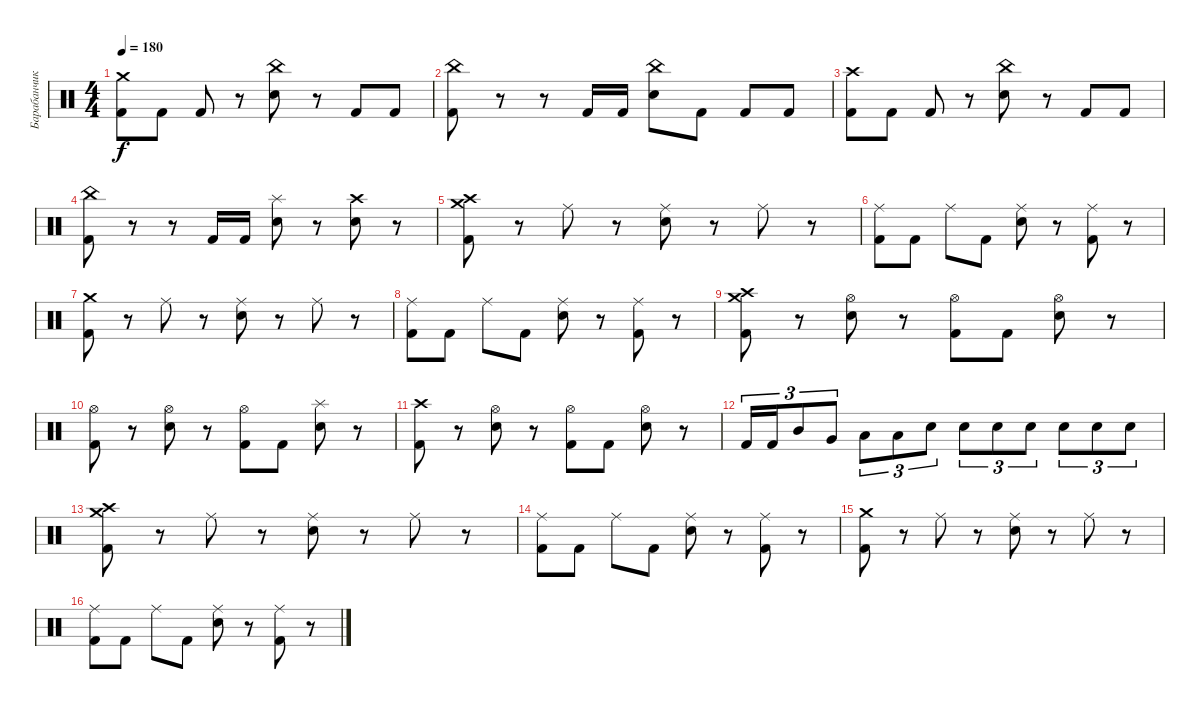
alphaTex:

\track ("Барабанчики" "Барабанчик") {instrument percussion}
\staff {score}
\articulation defaults
\ts (4 4)
\tempo 180
\clef neutral
\ks c
("Kick (hit) 2" "Crash medium (hit)").8{dy f} "Kick (hit) 2".8 "Kick (hit) 2".8 r.8 ("Electric Snare (hit)" "China (hit)").8 r.8 "Kick (hit) 2".8 "Kick (hit) 2".8 |
("Kick (hit) 2" "China (hit)").8 r.8 r.8 "Kick (hit) 2".16 "Kick (hit) 2".16 ("Electric Snare (hit)" "China (hit)").8 "Kick (hit) 2".8 "Kick (hit) 2".8 "Kick (hit) 2".8 |
("Kick (hit) 2" "Crash high (hit)").8 "Kick (hit) 2".8 "Kick (hit) 2".8 r.8 ("Electric Snare (hit)" "China (hit)").8 r.8 "Kick (hit) 2".8 "Kick (hit) 2".8 |
("Kick (hit) 2" "China (hit)").8 r.8 r.8 "Kick (hit) 2".16 "Kick (hit) 2".16 ("Electric Snare (hit)" "Splash (hit)").8 r.8 ("Electric Snare (hit)" "Crash high (hit)").8 r.8 |
("Kick (hit) 2" "Crash high (hit)" "Crash medium (hit)").8 r.8 "Ride (middle)".8 r.8 ("Electric Snare (hit)" "Ride (middle)").8 r.8 "Ride (middle)".8 r.8 |
("Kick (hit) 2" "Ride (middle)").8 "Kick (hit) 2".8 "Ride (middle)".8 "Kick (hit) 2".8 ("Electric Snare (hit)" "Ride (middle)").8 r.8 ("Kick (hit) 2" "Ride (middle)").8 r.8 |
("Kick (hit) 2" "Crash medium (hit)").8 r.8 "Ride (middle)".8 r.8 ("Electric Snare (hit)" "Ride (middle)").8 r.8 "Ride (middle)".8 r.8 |
("Kick (hit) 2" "Ride (middle)").8 "Kick (hit) 2".8 "Ride (middle)".8 "Kick (hit) 2".8 ("Electric Snare (hit)" "Ride (middle)").8 r.8 ("Kick (hit) 2" "Ride (middle)").8 r.8 |
("Kick (hit) 2" "Crash high (hit)" "Crash medium (hit)").8 r.8 ("Electric Snare (hit)" "Hi-Hat (open)").8 r.8 ("Kick (hit) 2" "Hi-Hat (open)").8 "Kick (hit) 2".8 ("Electric Snare (hit)" "Hi-Hat (open)").8 r.8 |
("Kick (hit) 2" "Hi-Hat (open)").8 r.8 ("Electric Snare (hit)" "Hi-Hat (open)").8 r.8 ("Kick (hit) 2" "Hi-Hat (open)").8 "Kick (hit) 2".8 ("Electric Snare (hit)" "Splash (hit)").8 r.8 |
("Kick (hit) 2" "Crash high (hit)").8 r.8 ("Electric Snare (hit)" "Hi-Hat (open)").8 r.8 ("Kick (hit) 2" "Hi-Hat (open)").8 "Kick (hit) 2".8 ("Electric Snare (hit)" "Hi-Hat (open)").8 r.8 |
"Kick (hit) 2".16{tu (3 2)} "Kick (hit) 2".16{tu (3 2)} "Mid Tom (hit)".8{tu (3 2)} "Very Low Tom (hit)".8{tu (3 2)} "Low Tom (hit)".8{tu (3 2)} "Low Floor Tom (hit)".8{tu (3 2)} "Electric Snare (hit)".8{tu (3 2)} "Electric Snare (hit)".8{tu (3 2)} "Electric Snare (hit)".8{tu (3 2)} "Electric Snare (hit)".8{tu (3 2)} "Electric Snare (hit)".8{tu (3 2)} "Electric Snare (hit)".8{tu (3 2)} "Electric Snare (hit)".8{tu (3 2)} |
("Kick (hit) 2" "Crash high (hit)" "Crash medium (hit)").8 r.8 "Ride (middle)".8 r.8 ("Electric Snare (hit)" "Ride (middle)").8 r.8 "Ride (middle)".8 r.8 |
("Kick (hit) 2" "Ride (middle)").8 "Kick (hit) 2".8 "Ride (middle)".8 "Kick (hit) 2".8 ("Electric Snare (hit)" "Ride (middle)").8 r.8 ("Kick (hit) 2" "Ride (middle)").8 r.8 |
("Kick (hit) 2" "Crash medium (hit)").8 r.8 "Ride (middle)".8 r.8 ("Electric Snare (hit)" "Ride (middle)").8 r.8 "Ride (middle)".8 r.8 |
("Kick (hit) 2" "Ride (middle)").8 "Kick (hit) 2".8 "Ride (middle)".8 "Kick (hit) 2".8 ("Electric Snare (hit)" "Ride (middle)").8 r.8 ("Kick (hit) 2" "Ride (middle)").8 r.8
